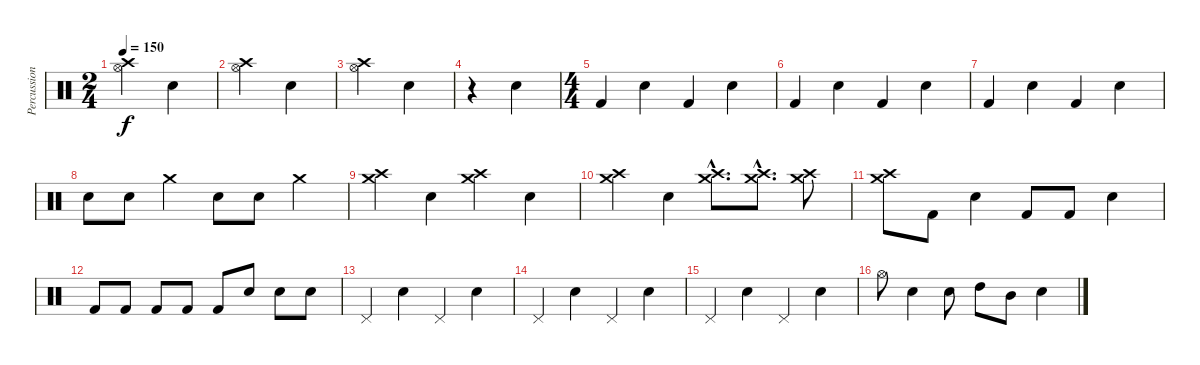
\track ("Percussion" "Percussion") {instrument percussion}
\staff {score}
\articulation defaults
\ts (2 4)
\tempo 150
\clef neutral
\ks c
("Hi-Hat (open)" "Crash high (hit)").4{dy f} "Snare (hit) 2".4 |
("Hi-Hat (open)" "Crash high (hit)").4 "Snare (hit) 2".4 |
("Hi-Hat (open)" "Crash high (hit)").4 "Snare (hit) 2".4 |
r.4 "Snare (hit) 2".4 |
\ts (4 4)
"Kick (hit) 2".4 "Snare (hit) 2".4 "Kick (hit) 2".4 "Snare (hit) 2".4 |
"Kick (hit) 2".4 "Snare (hit) 2".4 "Kick (hit) 2".4 "Snare (hit) 2".4 |
"Kick (hit) 2".4 "Snare (hit) 2".4 "Kick (hit) 2".4 "Snare (hit) 2".4 |
"Snare (hit) 2".8 "Snare (hit) 2".8 "Crash medium (hit)".4 "Snare (hit) 2".8 "Snare (hit) 2".8 "Crash medium (hit)".4 |
("Crash medium (hit)" "Crash high (hit)").4 "Snare (hit) 2".4 ("Crash medium (hit)" "Crash high (hit)").4 "Snare (hit) 2".4 |
("Crash medium (hit)" "Crash high (hit)").4 "Snare (hit) 2".4 ("Crash medium (hit)"{hac} "Crash high (hit)"{hac}).8{d} ("Crash medium (hit)"{hac} "Crash high (hit)"{hac}).8{d} ("Crash medium (hit)" "Crash high (hit)").8 |
("Crash medium (hit)" "Crash high (hit)").8 "Kick (hit) 2".8 "Snare (hit) 2".4 "Kick (hit) 2".8 "Kick (hit) 2".8 "Snare (hit) 2".4 |
"Kick (hit) 2".8 "Kick (hit) 2".8 "Kick (hit) 2".8 "Kick (hit) 2".8 "Kick (hit) 2".8 "Snare (hit) 2".8 "Snare (hit) 2".8 "Snare (hit) 2".8 |
"Pedal Hi-Hat (hit)".4 "Snare (hit) 2".4 "Pedal Hi-Hat (hit)".4 "Snare (hit) 2".4 |
"Pedal Hi-Hat (hit)".4 "Snare (hit) 2".4 "Pedal Hi-Hat (hit)".4 "Snare (hit) 2".4 |
"Pedal Hi-Hat (hit)".4 "Snare (hit) 2".4 "Pedal Hi-Hat (hit)".4 "Snare (hit) 2".4 |
"Hi-Hat (open)".8 "Snare (hit) 2".4 "Snare (hit) 2".8 "High Tom (hit)".8 "Mid Tom (hit)".8 "Snare (hit) 2".4
